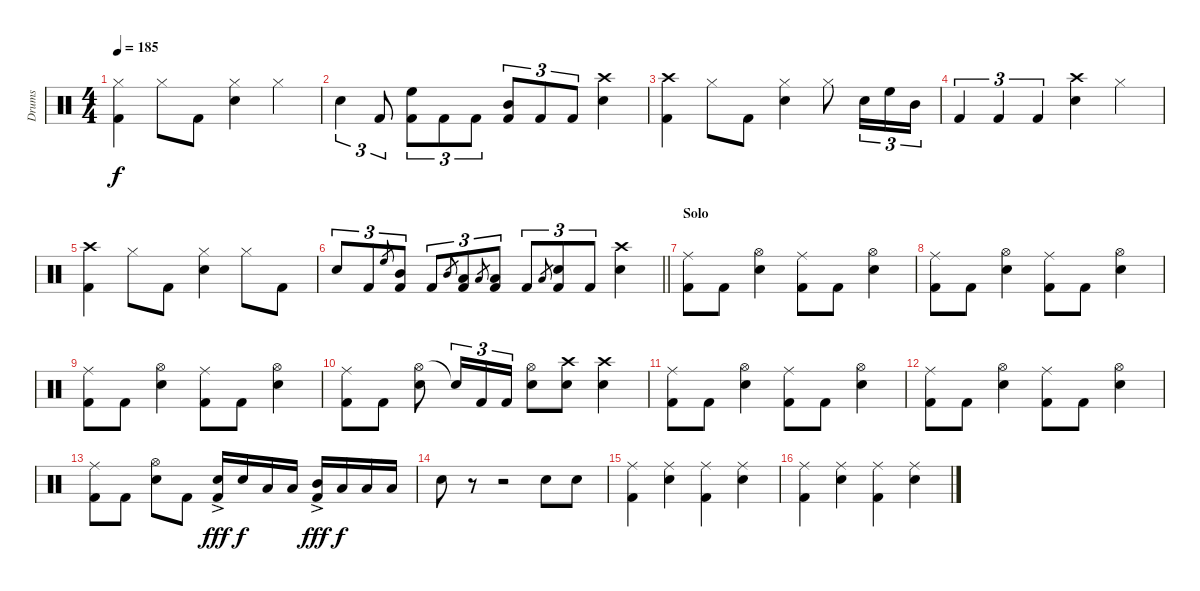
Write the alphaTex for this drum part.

\track ("Drums" "Drums") {instrument percussion}
\staff {score}
\articulation defaults
\ts (4 4)
\tempo 185
\clef neutral
\ks c
("Hi-Hat (closed)" "Kick (hit) 2").4{dy f} "Hi-Hat (closed)".8 "Kick (hit) 2".8 ("Hi-Hat (closed)" "Snare (hit) 2").4 "Hi-Hat (closed)".4 |
"Snare (hit) 2".4{tu (3 2)} "Kick (hit) 2".8{tu (3 2)} ("High Floor Tom (hit)" "Kick (hit) 2").8{tu (3 2)} "Kick (hit) 2".8{tu (3 2)} "Kick (hit) 2".8{tu (3 2)} ("Mid Tom (hit)" "Kick (hit) 2").8{tu (3 2)} "Kick (hit) 2".8{tu (3 2)} "Kick (hit) 2".8{tu (3 2)} ("Crash high (hit)" "Snare (hit) 2").4 |
("Crash high (hit)" "Kick (hit) 2").4 "Hi-Hat (closed)".8 "Kick (hit) 2".8 ("Hi-Hat (closed)" "Snare (hit) 2").4 "Hi-Hat (closed)".8 "Snare (hit) 2".16{tu (3 2)} "High Floor Tom (hit)".16{tu (3 2)} "Mid Tom (hit)".16{tu (3 2)} |
"Kick (hit) 2".4{tu (3 2)} "Kick (hit) 2".4{tu (3 2)} "Kick (hit) 2".4{tu (3 2)} ("Snare (hit) 2" "Crash high (hit)").4 "Hi-Hat (closed)".4 |
("Crash high (hit)" "Kick (hit) 2").4 "Hi-Hat (closed)".8 "Kick (hit) 2".8 ("Hi-Hat (closed)" "Snare (hit) 2").4 "Hi-Hat (closed)".8 "Kick (hit) 2".8 |
\barLineRight lightlight "Snare (hit) 2".8{tu (3 2)} "Kick (hit) 2".8{tu (3 2)} "High Floor Tom (hit)".8{gr}
("Mid Tom (hit)" "Kick (hit) 2").8{tu (3 2)} "Kick (hit) 2".8{tu (3 2)} "Mid Tom (hit)".8{gr} ("Low Tom (hit)" "Kick (hit) 2").8{tu (3 2)} "Low Tom (hit)".8{gr} ("Low Floor Tom (hit)" "Kick (hit) 2").8{tu (3 2)} "Kick (hit) 2".8{tu (3 2)} "Low Floor Tom (hit)".8{gr} ("Snare (hit) 2" "Kick (hit) 2").8{tu (3 2)} "Kick (hit) 2".8{tu (3 2)} ("Crash high (hit)" "Snare (hit) 2").4 |
\section ("" "Solo")
("Ride (middle)" "Kick (hit) 2").8 "Kick (hit) 2".8 ("Hi-Hat (open)" "Snare (hit) 2").4 ("Ride (middle)" "Kick (hit) 2").8 "Kick (hit) 2".8 ("Hi-Hat (open)" "Snare (hit) 2").4 |
("Ride (middle)" "Kick (hit) 2").8 "Kick (hit) 2".8 ("Hi-Hat (open)" "Snare (hit) 2").4 ("Ride (middle)" "Kick (hit) 2").8 "Kick (hit) 2".8 ("Hi-Hat (open)" "Snare (hit) 2").4 |
("Ride (middle)" "Kick (hit) 2").8 "Kick (hit) 2".8 ("Hi-Hat (open)" "Snare (hit) 2").4 ("Ride (middle)" "Kick (hit) 2").8 "Kick (hit) 2".8 ("Hi-Hat (open)" "Snare (hit) 2").4 |
("Ride (middle)" "Kick (hit) 2").8 "Kick (hit) 2".8 ("Hi-Hat (open)" "Snare (hit) 2").8 "Snare (hit)"{t}.16{tu (3 2)} "Kick (hit) 2".16{tu (3 2)} "Kick (hit) 2".16{tu (3 2)} ("Hi-Hat (open)" "Snare (hit) 2").8 ("Crash high (hit)" "Snare (hit) 2").8 ("Crash high (hit)" "Snare (hit) 2").4 |
("Ride (middle)" "Kick (hit) 2").8 "Kick (hit) 2".8 ("Hi-Hat (open)" "Snare (hit) 2").4 ("Ride (middle)" "Kick (hit) 2").8 "Kick (hit) 2".8 ("Hi-Hat (open)" "Snare (hit) 2").4 |
("Ride (middle)" "Kick (hit) 2").8 "Kick (hit) 2".8 ("Hi-Hat (open)" "Snare (hit) 2").4 ("Ride (middle)" "Kick (hit) 2").8 "Kick (hit) 2".8 ("Hi-Hat (open)" "Snare (hit) 2").4 |
("Ride (middle)" "Kick (hit) 2").8 "Kick (hit) 2".8 ("Hi-Hat (open)" "Snare (hit) 2").8 "Kick (hit) 2".8 ("Snare (hit) 2"{ac} "Kick (hit) 2").16{dy fff} "Snare (hit) 2".16{dy f} "Low Tom (hit)".16 "Low Tom (hit)".16 ("Mid Tom (hit)"{ac} "Kick (hit) 2").16{dy fff} "Low Tom (hit)".16{dy f} "Low Tom (hit)".16 "Low Tom (hit)".16 |
"Snare (hit) 2".8 r.8 r.2 "Snare (hit) 2".8 "Snare (hit) 2".8 |
("Kick (hit) 2" "Ride (middle)").4 ("Snare (hit) 2" "Ride (middle)").4 ("Kick (hit) 2" "Ride (middle)").4 ("Snare (hit) 2" "Ride (middle)").4 |
("Kick (hit) 2" "Ride (middle)").4 ("Snare (hit) 2" "Ride (middle)").4 ("Kick (hit) 2" "Ride (middle)").4 ("Snare (hit) 2" "Ride (middle)").4
